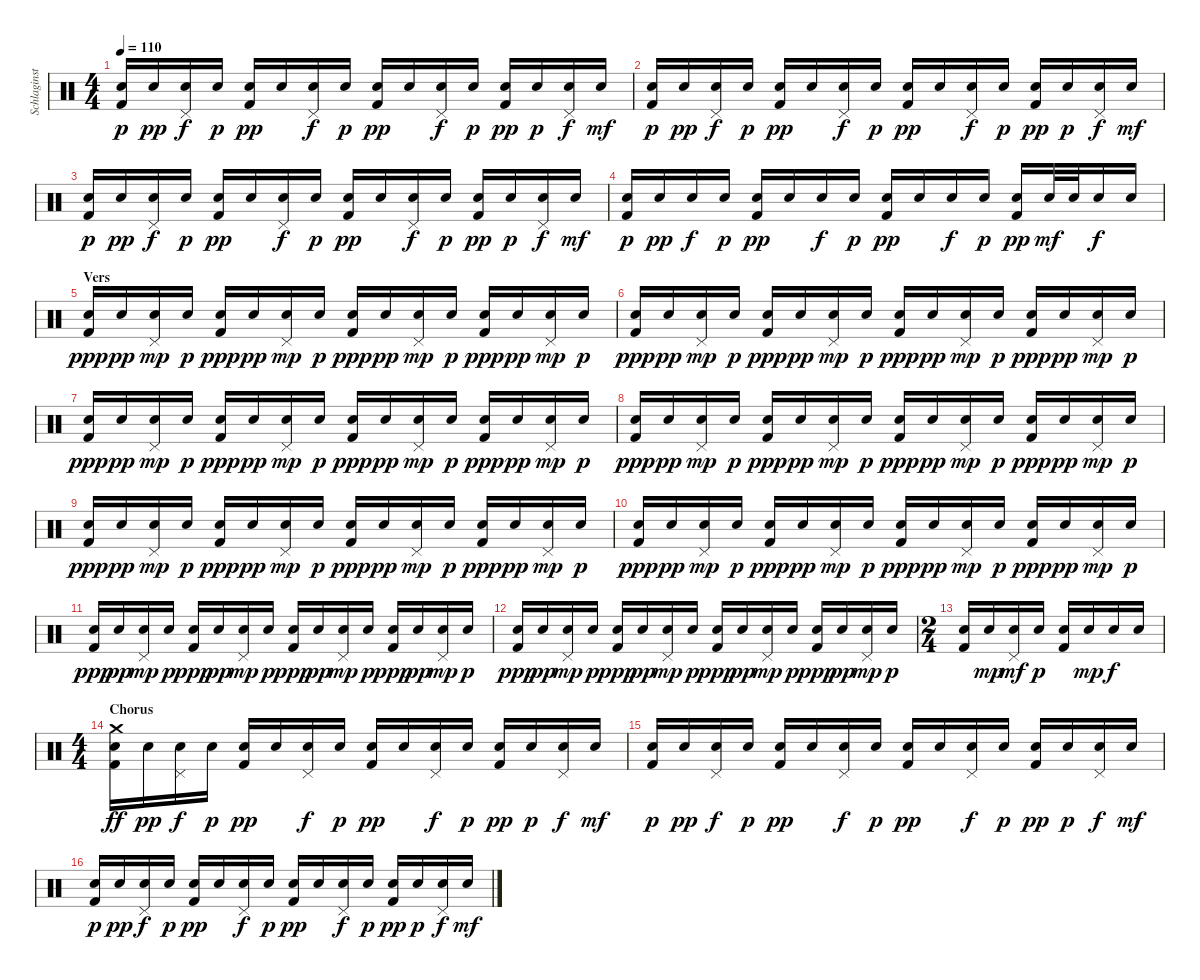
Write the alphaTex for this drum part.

\track ("Schlaginstrumente - Auswahl" "Schlaginst") {instrument percussion}
\staff {score}
\articulation defaults
\ts (4 4)
\tempo 110
\clef neutral
\ks c
("Snare (hit) 2" "Kick (hit) 2").16{dy p} "Snare (hit) 2".16{dy pp} ("Pedal Hi-Hat (hit)" "Snare (hit) 2").16{dy f} "Snare (hit) 2".16{dy p} ("Snare (hit) 2" "Kick (hit) 2").16{dy pp} "Snare (hit) 2".16 ("Pedal Hi-Hat (hit)" "Snare (hit) 2").16{dy f} "Snare (hit) 2".16{dy p} ("Snare (hit) 2" "Kick (hit) 2").16{dy pp} "Snare (hit) 2".16 ("Pedal Hi-Hat (hit)" "Snare (hit) 2").16{dy f} "Snare (hit) 2".16{dy p} ("Snare (hit) 2" "Kick (hit) 2").16{dy pp} "Snare (hit) 2".16{dy p} ("Pedal Hi-Hat (hit)" "Snare (hit) 2").16{dy f} "Snare (hit) 2".16{dy mf} |
("Snare (hit) 2" "Kick (hit) 2").16{dy p} "Snare (hit) 2".16{dy pp} ("Pedal Hi-Hat (hit)" "Snare (hit) 2").16{dy f} "Snare (hit) 2".16{dy p} ("Snare (hit) 2" "Kick (hit) 2").16{dy pp} "Snare (hit) 2".16 ("Pedal Hi-Hat (hit)" "Snare (hit) 2").16{dy f} "Snare (hit) 2".16{dy p} ("Snare (hit) 2" "Kick (hit) 2").16{dy pp} "Snare (hit) 2".16 ("Pedal Hi-Hat (hit)" "Snare (hit) 2").16{dy f} "Snare (hit) 2".16{dy p} ("Snare (hit) 2" "Kick (hit) 2").16{dy pp} "Snare (hit) 2".16{dy p} ("Pedal Hi-Hat (hit)" "Snare (hit) 2").16{dy f} "Snare (hit) 2".16{dy mf} |
("Snare (hit) 2" "Kick (hit) 2").16{dy p} "Snare (hit) 2".16{dy pp} ("Pedal Hi-Hat (hit)" "Snare (hit) 2").16{dy f} "Snare (hit) 2".16{dy p} ("Snare (hit) 2" "Kick (hit) 2").16{dy pp} "Snare (hit) 2".16 ("Pedal Hi-Hat (hit)" "Snare (hit) 2").16{dy f} "Snare (hit) 2".16{dy p} ("Snare (hit) 2" "Kick (hit) 2").16{dy pp} "Snare (hit) 2".16 ("Pedal Hi-Hat (hit)" "Snare (hit) 2").16{dy f} "Snare (hit) 2".16{dy p} ("Snare (hit) 2" "Kick (hit) 2").16{dy pp} "Snare (hit) 2".16{dy p} ("Pedal Hi-Hat (hit)" "Snare (hit) 2").16{dy f} "Snare (hit) 2".16{dy mf} |
("Snare (hit) 2" "Kick (hit) 2").16{dy p} "Snare (hit) 2".16{dy pp} "Snare (hit) 2".16{dy f} "Snare (hit) 2".16{dy p} ("Snare (hit) 2" "Kick (hit) 2").16{dy pp} "Snare (hit) 2".16 "Snare (hit) 2".16{dy f} "Snare (hit) 2".16{dy p} ("Snare (hit) 2" "Kick (hit) 2").16{dy pp} "Snare (hit) 2".16 "Snare (hit) 2".16{dy f} "Snare (hit) 2".16{dy p} ("Snare (hit) 2" "Kick (hit) 2").16{dy pp} "Snare (hit) 2".32{dy mf} "Snare (hit) 2".32 "Snare (hit) 2".16{dy f} "Snare (hit) 2".16 |
\section ("" "Vers")
("Snare (hit) 2" "Kick (hit) 2").16{dy ppp} "Snare (hit) 2".16{dy pp} ("Pedal Hi-Hat (hit)" "Snare (hit) 2").16{dy mp} "Snare (hit) 2".16{dy p} ("Snare (hit) 2" "Kick (hit) 2").16{dy ppp} "Snare (hit) 2".16{dy pp} ("Pedal Hi-Hat (hit)" "Snare (hit) 2").16{dy mp} "Snare (hit) 2".16{dy p} ("Snare (hit) 2" "Kick (hit) 2").16{dy ppp} "Snare (hit) 2".16{dy pp} ("Pedal Hi-Hat (hit)" "Snare (hit) 2").16{dy mp} "Snare (hit) 2".16{dy p} ("Snare (hit) 2" "Kick (hit) 2").16{dy ppp} "Snare (hit) 2".16{dy pp} ("Pedal Hi-Hat (hit)" "Snare (hit) 2").16{dy mp} "Snare (hit) 2".16{dy p} |
("Snare (hit) 2" "Kick (hit) 2").16{dy ppp} "Snare (hit) 2".16{dy pp} ("Pedal Hi-Hat (hit)" "Snare (hit) 2").16{dy mp} "Snare (hit) 2".16{dy p} ("Snare (hit) 2" "Kick (hit) 2").16{dy ppp} "Snare (hit) 2".16{dy pp} ("Pedal Hi-Hat (hit)" "Snare (hit) 2").16{dy mp} "Snare (hit) 2".16{dy p} ("Snare (hit) 2" "Kick (hit) 2").16{dy ppp} "Snare (hit) 2".16{dy pp} ("Pedal Hi-Hat (hit)" "Snare (hit) 2").16{dy mp} "Snare (hit) 2".16{dy p} ("Snare (hit) 2" "Kick (hit) 2").16{dy ppp} "Snare (hit) 2".16{dy pp} ("Pedal Hi-Hat (hit)" "Snare (hit) 2").16{dy mp} "Snare (hit) 2".16{dy p} |
("Snare (hit) 2" "Kick (hit) 2").16{dy ppp} "Snare (hit) 2".16{dy pp} ("Pedal Hi-Hat (hit)" "Snare (hit) 2").16{dy mp} "Snare (hit) 2".16{dy p} ("Snare (hit) 2" "Kick (hit) 2").16{dy ppp} "Snare (hit) 2".16{dy pp} ("Pedal Hi-Hat (hit)" "Snare (hit) 2").16{dy mp} "Snare (hit) 2".16{dy p} ("Snare (hit) 2" "Kick (hit) 2").16{dy ppp} "Snare (hit) 2".16{dy pp} ("Pedal Hi-Hat (hit)" "Snare (hit) 2").16{dy mp} "Snare (hit) 2".16{dy p} ("Snare (hit) 2" "Kick (hit) 2").16{dy ppp} "Snare (hit) 2".16{dy pp} ("Pedal Hi-Hat (hit)" "Snare (hit) 2").16{dy mp} "Snare (hit) 2".16{dy p} |
("Snare (hit) 2" "Kick (hit) 2").16{dy ppp} "Snare (hit) 2".16{dy pp} ("Pedal Hi-Hat (hit)" "Snare (hit) 2").16{dy mp} "Snare (hit) 2".16{dy p} ("Snare (hit) 2" "Kick (hit) 2").16{dy ppp} "Snare (hit) 2".16{dy pp} ("Pedal Hi-Hat (hit)" "Snare (hit) 2").16{dy mp} "Snare (hit) 2".16{dy p} ("Snare (hit) 2" "Kick (hit) 2").16{dy ppp} "Snare (hit) 2".16{dy pp} ("Pedal Hi-Hat (hit)" "Snare (hit) 2").16{dy mp} "Snare (hit) 2".16{dy p} ("Snare (hit) 2" "Kick (hit) 2").16{dy ppp} "Snare (hit) 2".16{dy pp} ("Pedal Hi-Hat (hit)" "Snare (hit) 2").16{dy mp} "Snare (hit) 2".16{dy p} |
("Snare (hit) 2" "Kick (hit) 2").16{dy ppp} "Snare (hit) 2".16{dy pp} ("Pedal Hi-Hat (hit)" "Snare (hit) 2").16{dy mp} "Snare (hit) 2".16{dy p} ("Snare (hit) 2" "Kick (hit) 2").16{dy ppp} "Snare (hit) 2".16{dy pp} ("Pedal Hi-Hat (hit)" "Snare (hit) 2").16{dy mp} "Snare (hit) 2".16{dy p} ("Snare (hit) 2" "Kick (hit) 2").16{dy ppp} "Snare (hit) 2".16{dy pp} ("Pedal Hi-Hat (hit)" "Snare (hit) 2").16{dy mp} "Snare (hit) 2".16{dy p} ("Snare (hit) 2" "Kick (hit) 2").16{dy ppp} "Snare (hit) 2".16{dy pp} ("Pedal Hi-Hat (hit)" "Snare (hit) 2").16{dy mp} "Snare (hit) 2".16{dy p} |
("Snare (hit) 2" "Kick (hit) 2").16{dy ppp} "Snare (hit) 2".16{dy pp} ("Pedal Hi-Hat (hit)" "Snare (hit) 2").16{dy mp} "Snare (hit) 2".16{dy p} ("Snare (hit) 2" "Kick (hit) 2").16{dy ppp} "Snare (hit) 2".16{dy pp} ("Pedal Hi-Hat (hit)" "Snare (hit) 2").16{dy mp} "Snare (hit) 2".16{dy p} ("Snare (hit) 2" "Kick (hit) 2").16{dy ppp} "Snare (hit) 2".16{dy pp} ("Pedal Hi-Hat (hit)" "Snare (hit) 2").16{dy mp} "Snare (hit) 2".16{dy p} ("Snare (hit) 2" "Kick (hit) 2").16{dy ppp} "Snare (hit) 2".16{dy pp} ("Pedal Hi-Hat (hit)" "Snare (hit) 2").16{dy mp} "Snare (hit) 2".16{dy p} |
("Snare (hit) 2" "Kick (hit) 2").16{dy ppp} "Snare (hit) 2".16{dy pp} ("Pedal Hi-Hat (hit)" "Snare (hit) 2").16{dy mp} "Snare (hit) 2".16{dy p} ("Snare (hit) 2" "Kick (hit) 2").16{dy ppp} "Snare (hit) 2".16{dy pp} ("Pedal Hi-Hat (hit)" "Snare (hit) 2").16{dy mp} "Snare (hit) 2".16{dy p} ("Snare (hit) 2" "Kick (hit) 2").16{dy ppp} "Snare (hit) 2".16{dy pp} ("Pedal Hi-Hat (hit)" "Snare (hit) 2").16{dy mp} "Snare (hit) 2".16{dy p} ("Snare (hit) 2" "Kick (hit) 2").16{dy ppp} "Snare (hit) 2".16{dy pp} ("Pedal Hi-Hat (hit)" "Snare (hit) 2").16{dy mp} "Snare (hit) 2".16{dy p} |
("Snare (hit) 2" "Kick (hit) 2").16{dy ppp} "Snare (hit) 2".16{dy pp} ("Pedal Hi-Hat (hit)" "Snare (hit) 2").16{dy mp} "Snare (hit) 2".16{dy p} ("Snare (hit) 2" "Kick (hit) 2").16{dy ppp} "Snare (hit) 2".16{dy pp} ("Pedal Hi-Hat (hit)" "Snare (hit) 2").16{dy mp} "Snare (hit) 2".16{dy p} ("Snare (hit) 2" "Kick (hit) 2").16{dy ppp} "Snare (hit) 2".16{dy pp} ("Pedal Hi-Hat (hit)" "Snare (hit) 2").16{dy mp} "Snare (hit) 2".16{dy p} ("Snare (hit) 2" "Kick (hit) 2").16{dy ppp} "Snare (hit) 2".16{dy pp} ("Pedal Hi-Hat (hit)" "Snare (hit) 2").16{dy mp} "Snare (hit) 2".16{dy p} |
\ts (2 4)
("Snare (hit) 2" "Kick (hit) 2").16 "Snare (hit) 2".16{dy mp} ("Pedal Hi-Hat (hit)" "Snare (hit) 2").16{dy mf} "Snare (hit) 2".16{dy p} ("Snare (hit) 2" "Kick (hit) 2").16 "Snare (hit) 2".16{dy mp} "Snare (hit) 2".16{dy f} "Snare (hit) 2".16 |
\ts (4 4)
\section ("" "Chorus")
("Crash medium (hit)" "Snare (hit) 2" "Kick (hit) 2").16{dy ff} "Snare (hit) 2".16{dy pp} ("Pedal Hi-Hat (hit)" "Snare (hit) 2").16{dy f} "Snare (hit) 2".16{dy p} ("Snare (hit) 2" "Kick (hit) 2").16{dy pp} "Snare (hit) 2".16 ("Pedal Hi-Hat (hit)" "Snare (hit) 2").16{dy f} "Snare (hit) 2".16{dy p} ("Snare (hit) 2" "Kick (hit) 2").16{dy pp} "Snare (hit) 2".16 ("Pedal Hi-Hat (hit)" "Snare (hit) 2").16{dy f} "Snare (hit) 2".16{dy p} ("Snare (hit) 2" "Kick (hit) 2").16{dy pp} "Snare (hit) 2".16{dy p} ("Pedal Hi-Hat (hit)" "Snare (hit) 2").16{dy f} "Snare (hit) 2".16{dy mf} |
("Snare (hit) 2" "Kick (hit) 2").16{dy p} "Snare (hit) 2".16{dy pp} ("Pedal Hi-Hat (hit)" "Snare (hit) 2").16{dy f} "Snare (hit) 2".16{dy p} ("Snare (hit) 2" "Kick (hit) 2").16{dy pp} "Snare (hit) 2".16 ("Pedal Hi-Hat (hit)" "Snare (hit) 2").16{dy f} "Snare (hit) 2".16{dy p} ("Snare (hit) 2" "Kick (hit) 2").16{dy pp} "Snare (hit) 2".16 ("Pedal Hi-Hat (hit)" "Snare (hit) 2").16{dy f} "Snare (hit) 2".16{dy p} ("Snare (hit) 2" "Kick (hit) 2").16{dy pp} "Snare (hit) 2".16{dy p} ("Pedal Hi-Hat (hit)" "Snare (hit) 2").16{dy f} "Snare (hit) 2".16{dy mf} |
("Snare (hit) 2" "Kick (hit) 2").16{dy p} "Snare (hit) 2".16{dy pp} ("Pedal Hi-Hat (hit)" "Snare (hit) 2").16{dy f} "Snare (hit) 2".16{dy p} ("Snare (hit) 2" "Kick (hit) 2").16{dy pp} "Snare (hit) 2".16 ("Pedal Hi-Hat (hit)" "Snare (hit) 2").16{dy f} "Snare (hit) 2".16{dy p} ("Snare (hit) 2" "Kick (hit) 2").16{dy pp} "Snare (hit) 2".16 ("Pedal Hi-Hat (hit)" "Snare (hit) 2").16{dy f} "Snare (hit) 2".16{dy p} ("Snare (hit) 2" "Kick (hit) 2").16{dy pp} "Snare (hit) 2".16{dy p} ("Pedal Hi-Hat (hit)" "Snare (hit) 2").16{dy f} "Snare (hit) 2".16{dy mf}
